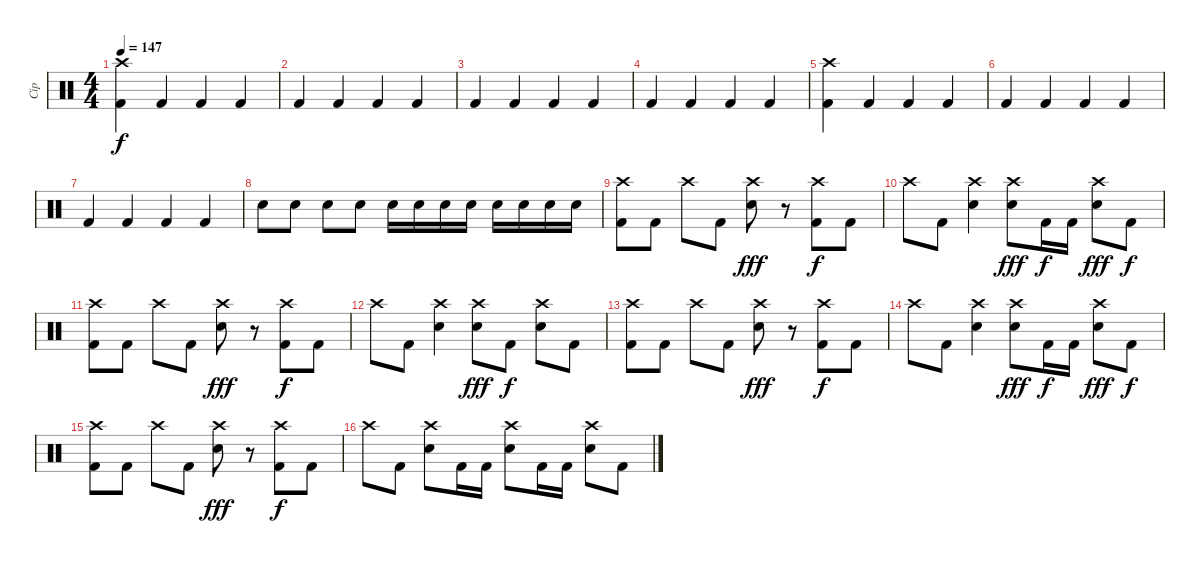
\track ("Cip" "Cip") {instrument percussion}
\staff {score}
\articulation defaults
\ts (4 4)
\tempo 147
\clef neutral
\ks c
("Crash high (hit)" "Kick (hit) 2").4{dy f} "Kick (hit) 2".4 "Kick (hit) 2".4 "Kick (hit) 2".4 |
"Kick (hit) 2".4 "Kick (hit) 2".4 "Kick (hit) 2".4 "Kick (hit) 2".4 |
"Kick (hit) 2".4 "Kick (hit) 2".4 "Kick (hit) 2".4 "Kick (hit) 2".4 |
"Kick (hit) 2".4 "Kick (hit) 2".4 "Kick (hit) 2".4 "Kick (hit) 2".4 |
("Crash high (hit)" "Kick (hit) 2").4 "Kick (hit) 2".4 "Kick (hit) 2".4 "Kick (hit) 2".4 |
"Kick (hit) 2".4 "Kick (hit) 2".4 "Kick (hit) 2".4 "Kick (hit) 2".4 |
"Kick (hit) 2".4 "Kick (hit) 2".4 "Kick (hit) 2".4 "Kick (hit) 2".4 |
"Electric Snare (hit)".8 "Electric Snare (hit)".8 "Electric Snare (hit)".8 "Electric Snare (hit)".8 "Electric Snare (hit)".16 "Electric Snare (hit)".16 "Electric Snare (hit)".16 "Electric Snare (hit)".16 "Electric Snare (hit)".16 "Electric Snare (hit)".16 "Electric Snare (hit)".16 "Electric Snare (hit)".16 |
("Crash high (hit)" "Kick (hit) 2").8 "Kick (hit) 2".8 "Crash high (hit)".8 "Kick (hit) 2".8 ("Crash high (hit)" "Electric Snare (hit)").8{dy fff} r.8 ("Crash high (hit)" "Kick (hit) 2").8{dy f} "Kick (hit) 2".8 |
"Crash high (hit)".8 "Kick (hit) 2".8 ("Crash high (hit)" "Electric Snare (hit)").4 ("Crash high (hit)" "Electric Snare (hit)").8{dy fff} "Kick (hit) 2".16{dy f} "Kick (hit) 2".16 ("Crash high (hit)" "Electric Snare (hit)").8{dy fff} "Kick (hit) 2".8{dy f} |
("Crash high (hit)" "Kick (hit) 2").8 "Kick (hit) 2".8 "Crash high (hit)".8 "Kick (hit) 2".8 ("Crash high (hit)" "Electric Snare (hit)").8{dy fff} r.8 ("Crash high (hit)" "Kick (hit) 2").8{dy f} "Kick (hit) 2".8 |
"Crash high (hit)".8 "Kick (hit) 2".8 ("Crash high (hit)" "Electric Snare (hit)").4 ("Crash high (hit)" "Electric Snare (hit)").8{dy fff} "Kick (hit) 2".8{dy f} ("Crash high (hit)" "Electric Snare (hit)").8 "Kick (hit) 2".8 |
("Crash high (hit)" "Kick (hit) 2").8 "Kick (hit) 2".8 "Crash high (hit)".8 "Kick (hit) 2".8 ("Crash high (hit)" "Electric Snare (hit)").8{dy fff} r.8 ("Crash high (hit)" "Kick (hit) 2").8{dy f} "Kick (hit) 2".8 |
"Crash high (hit)".8 "Kick (hit) 2".8 ("Crash high (hit)" "Electric Snare (hit)").4 ("Crash high (hit)" "Electric Snare (hit)").8{dy fff} "Kick (hit) 2".16{dy f} "Kick (hit) 2".16 ("Crash high (hit)" "Electric Snare (hit)").8{dy fff} "Kick (hit) 2".8{dy f} |
("Crash high (hit)" "Kick (hit) 2").8 "Kick (hit) 2".8 "Crash high (hit)".8 "Kick (hit) 2".8 ("Crash high (hit)" "Electric Snare (hit)").8{dy fff} r.8 ("Crash high (hit)" "Kick (hit) 2").8{dy f} "Kick (hit) 2".8 |
"Crash high (hit)".8 "Kick (hit) 2".8 ("Crash high (hit)" "Electric Snare (hit)").8 "Kick (hit) 2".16 "Kick (hit) 2".16 ("Crash high (hit)" "Electric Snare (hit)").8 "Kick (hit) 2".16 "Kick (hit) 2".16 ("Crash high (hit)" "Electric Snare (hit)").8 "Kick (hit) 2".8
